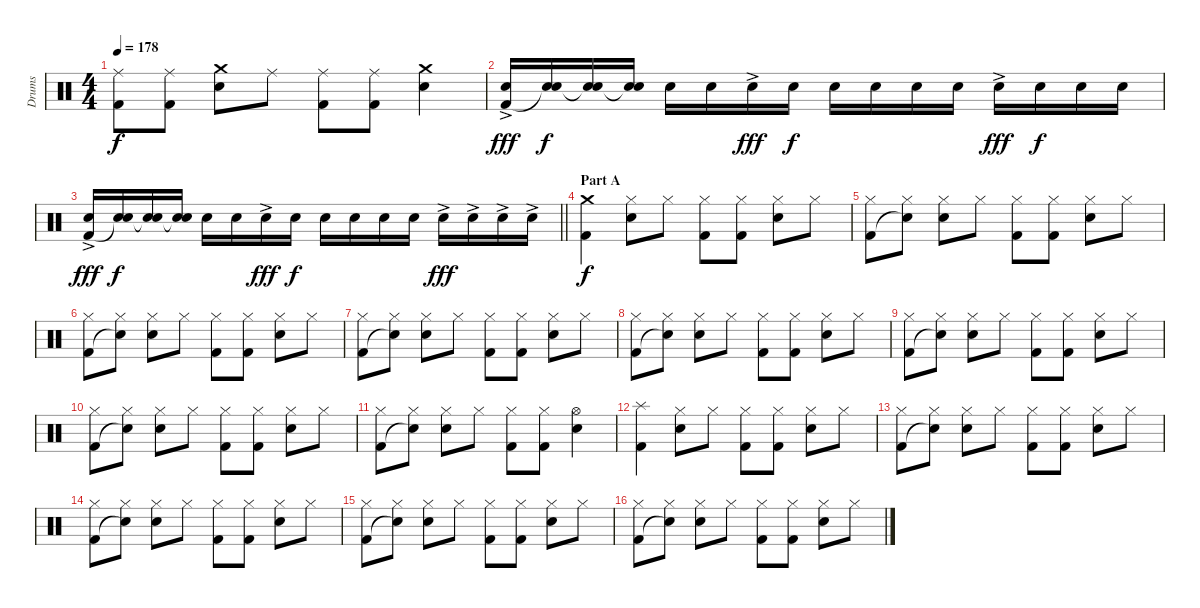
\track ("Drums" "Drums") {instrument percussion}
\staff {score}
\articulation defaults
\ts (4 4)
\tempo 178
\clef neutral
\ks c
("Ride (middle)" "Kick (hit) 2").8{dy f} ("Ride (middle)" "Kick (hit) 2").8 ("Crash medium (hit)" "Electric Snare (hit)").8 "Ride (middle)".8 ("Ride (middle)" "Kick (hit) 2").8 ("Ride (middle)" "Kick (hit) 2").8 ("Crash medium (hit)" "Electric Snare (hit)").4 |
("Electric Snare (hit)"{ac} "Kick (hit) 2").16{dy fff} ("Electric Snare (hit)" "Snare (hit)"{t}).16{dy f} ("Electric Snare (hit)" "Snare (hit)"{t}).16 ("Electric Snare (hit)" "Snare (hit)"{t}).16 "Electric Snare (hit)".16 "Electric Snare (hit)".16 "Electric Snare (hit)"{ac}.16{dy fff} "Electric Snare (hit)".16{dy f} "Electric Snare (hit)".16 "Electric Snare (hit)".16 "Electric Snare (hit)".16 "Electric Snare (hit)".16 "Electric Snare (hit)"{ac}.16{dy fff} "Electric Snare (hit)".16{dy f} "Electric Snare (hit)".16 "Electric Snare (hit)".16 |
\barLineRight lightlight
("Electric Snare (hit)"{ac} "Kick (hit) 2").16{dy fff} ("Electric Snare (hit)" "Snare (hit)"{t}).16{dy f} ("Electric Snare (hit)" "Snare (hit)"{t}).16 ("Electric Snare (hit)" "Snare (hit)"{t}).16 "Electric Snare (hit)".16 "Electric Snare (hit)".16 "Electric Snare (hit)"{ac}.16{dy fff} "Electric Snare (hit)".16{dy f} "Electric Snare (hit)".16 "Electric Snare (hit)".16 "Electric Snare (hit)".16 "Electric Snare (hit)".16 "Electric Snare (hit)"{ac}.16{dy fff} "Electric Snare (hit)"{ac}.16 "Electric Snare (hit)"{ac}.16 "Electric Snare (hit)"{ac}.16 |
\section ("" "Part A")
("Crash medium (hit)" "Kick (hit) 2").4{dy f} ("Hi-Hat (closed)" "Electric Snare (hit)").8 "Hi-Hat (closed)".8 ("Hi-Hat (closed)" "Kick (hit) 2").8 ("Hi-Hat (closed)" "Kick (hit) 2").8 ("Hi-Hat (closed)" "Electric Snare (hit)").8 "Hi-Hat (closed)".8 |
("Hi-Hat (closed)" "Kick (hit) 2").8 ("Hi-Hat (closed)" "Snare (hit)"{t}).8 ("Hi-Hat (closed)" "Electric Snare (hit)").8 "Hi-Hat (closed)".8 ("Hi-Hat (closed)" "Kick (hit) 2").8 ("Hi-Hat (closed)" "Kick (hit) 2").8 ("Hi-Hat (closed)" "Electric Snare (hit)").8 "Hi-Hat (closed)".8 |
("Hi-Hat (closed)" "Kick (hit) 2").8 ("Hi-Hat (closed)" "Snare (hit)"{t}).8 ("Hi-Hat (closed)" "Electric Snare (hit)").8 "Hi-Hat (closed)".8 ("Hi-Hat (closed)" "Kick (hit) 2").8 ("Hi-Hat (closed)" "Kick (hit) 2").8 ("Hi-Hat (closed)" "Electric Snare (hit)").8 "Hi-Hat (closed)".8 |
("Hi-Hat (closed)" "Kick (hit) 2").8 ("Hi-Hat (closed)" "Snare (hit)"{t}).8 ("Hi-Hat (closed)" "Electric Snare (hit)").8 "Hi-Hat (closed)".8 ("Hi-Hat (closed)" "Kick (hit) 2").8 ("Hi-Hat (closed)" "Kick (hit) 2").8 ("Hi-Hat (closed)" "Electric Snare (hit)").8 "Hi-Hat (closed)".8 |
("Hi-Hat (closed)" "Kick (hit) 2").8 ("Hi-Hat (closed)" "Snare (hit)"{t}).8 ("Hi-Hat (closed)" "Electric Snare (hit)").8 "Hi-Hat (closed)".8 ("Hi-Hat (closed)" "Kick (hit) 2").8 ("Hi-Hat (closed)" "Kick (hit) 2").8 ("Hi-Hat (closed)" "Electric Snare (hit)").8 "Hi-Hat (closed)".8 |
("Hi-Hat (closed)" "Kick (hit) 2").8 ("Hi-Hat (closed)" "Snare (hit)"{t}).8 ("Hi-Hat (closed)" "Electric Snare (hit)").8 "Hi-Hat (closed)".8 ("Hi-Hat (closed)" "Kick (hit) 2").8 ("Hi-Hat (closed)" "Kick (hit) 2").8 ("Hi-Hat (closed)" "Electric Snare (hit)").8 "Hi-Hat (closed)".8 |
("Hi-Hat (closed)" "Kick (hit) 2").8 ("Hi-Hat (closed)" "Snare (hit)"{t}).8 ("Hi-Hat (closed)" "Electric Snare (hit)").8 "Hi-Hat (closed)".8 ("Hi-Hat (closed)" "Kick (hit) 2").8 ("Hi-Hat (closed)" "Kick (hit) 2").8 ("Hi-Hat (closed)" "Electric Snare (hit)").8 "Hi-Hat (closed)".8 |
("Hi-Hat (closed)" "Kick (hit) 2").8 ("Hi-Hat (closed)" "Snare (hit)"{t}).8 ("Hi-Hat (closed)" "Electric Snare (hit)").8 "Hi-Hat (closed)".8 ("Hi-Hat (closed)" "Kick (hit) 2").8 ("Hi-Hat (closed)" "Kick (hit) 2").8 ("Hi-Hat (open)" "Electric Snare (hit)").4 |
("Splash (hit)" "Kick (hit) 2").4 ("Hi-Hat (closed)" "Electric Snare (hit)").8 "Hi-Hat (closed)".8 ("Hi-Hat (closed)" "Kick (hit) 2").8 ("Hi-Hat (closed)" "Kick (hit) 2").8 ("Hi-Hat (closed)" "Electric Snare (hit)").8 "Hi-Hat (closed)".8 |
("Hi-Hat (closed)" "Kick (hit) 2").8 ("Hi-Hat (closed)" "Snare (hit)"{t}).8 ("Hi-Hat (closed)" "Electric Snare (hit)").8 "Hi-Hat (closed)".8 ("Hi-Hat (closed)" "Kick (hit) 2").8 ("Hi-Hat (closed)" "Kick (hit) 2").8 ("Hi-Hat (closed)" "Electric Snare (hit)").8 "Hi-Hat (closed)".8 |
("Hi-Hat (closed)" "Kick (hit) 2").8 ("Hi-Hat (closed)" "Snare (hit)"{t}).8 ("Hi-Hat (closed)" "Electric Snare (hit)").8 "Hi-Hat (closed)".8 ("Hi-Hat (closed)" "Kick (hit) 2").8 ("Hi-Hat (closed)" "Kick (hit) 2").8 ("Hi-Hat (closed)" "Electric Snare (hit)").8 "Hi-Hat (closed)".8 |
("Hi-Hat (closed)" "Kick (hit) 2").8 ("Hi-Hat (closed)" "Snare (hit)"{t}).8 ("Hi-Hat (closed)" "Electric Snare (hit)").8 "Hi-Hat (closed)".8 ("Hi-Hat (closed)" "Kick (hit) 2").8 ("Hi-Hat (closed)" "Kick (hit) 2").8 ("Hi-Hat (closed)" "Electric Snare (hit)").8 "Hi-Hat (closed)".8 |
("Hi-Hat (closed)" "Kick (hit) 2").8 ("Hi-Hat (closed)" "Snare (hit)"{t}).8 ("Hi-Hat (closed)" "Electric Snare (hit)").8 "Hi-Hat (closed)".8 ("Hi-Hat (closed)" "Kick (hit) 2").8 ("Hi-Hat (closed)" "Kick (hit) 2").8 ("Hi-Hat (closed)" "Electric Snare (hit)").8 "Hi-Hat (closed)".8
